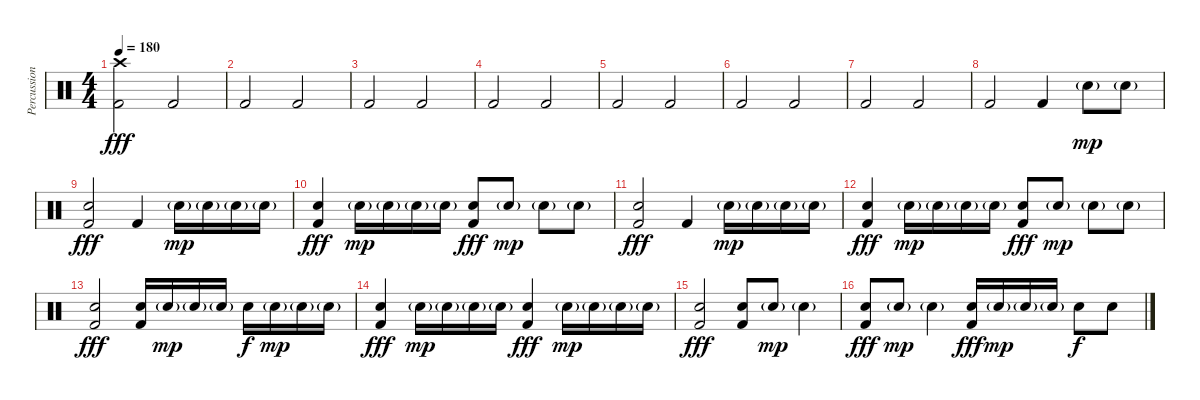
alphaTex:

\track ("Percussion" "Percussion") {instrument percussion}
\staff {score}
\articulation defaults
\ts (4 4)
\tempo 180
\clef neutral
\ks c
("Crash high (hit)" "Kick (hit) 2").2{dy fff} "Kick (hit) 2".2 |
"Kick (hit) 2".2 "Kick (hit) 2".2 |
"Kick (hit) 2".2 "Kick (hit) 2".2 |
"Kick (hit) 2".2 "Kick (hit) 2".2 |
"Kick (hit) 2".2 "Kick (hit) 2".2 |
"Kick (hit) 2".2 "Kick (hit) 2".2 |
"Kick (hit) 2".2 "Kick (hit) 2".2 |
"Kick (hit) 2".2 "Kick (hit) 2".4 "Electric Snare (hit)"{g}.8{dy mp} "Electric Snare (hit)"{g}.8 |
("Kick (hit) 2" "Electric Snare (hit)").2{dy fff} "Kick (hit) 2".4 "Electric Snare (hit)"{g}.16{dy mp} "Electric Snare (hit)"{g}.16 "Electric Snare (hit)"{g}.16 "Electric Snare (hit)"{g}.16 |
("Kick (hit) 2" "Electric Snare (hit)").4{dy fff} "Electric Snare (hit)"{g}.16{dy mp} "Electric Snare (hit)"{g}.16 "Electric Snare (hit)"{g}.16 "Electric Snare (hit)"{g}.16 ("Kick (hit) 2" "Electric Snare (hit)").8{dy fff} "Electric Snare (hit)"{g}.8{dy mp} "Electric Snare (hit)"{g}.8 "Electric Snare (hit)"{g}.8 |
("Kick (hit) 2" "Electric Snare (hit)").2{dy fff} "Kick (hit) 2".4 "Electric Snare (hit)"{g}.16{dy mp} "Electric Snare (hit)"{g}.16 "Electric Snare (hit)"{g}.16 "Electric Snare (hit)"{g}.16 |
("Kick (hit) 2" "Electric Snare (hit)").4{dy fff} "Electric Snare (hit)"{g}.16{dy mp} "Electric Snare (hit)"{g}.16 "Electric Snare (hit)"{g}.16 "Electric Snare (hit)"{g}.16 ("Kick (hit) 2" "Electric Snare (hit)").8{dy fff} "Electric Snare (hit)"{g}.8{dy mp} "Electric Snare (hit)"{g}.8 "Electric Snare (hit)"{g}.8 |
("Kick (hit) 2" "Electric Snare (hit)").2{dy fff} ("Kick (hit) 2" "Electric Snare (hit)").16 "Electric Snare (hit)"{g}.16{dy mp} "Electric Snare (hit)"{g}.16 "Electric Snare (hit)"{g}.16 "Electric Snare (hit)".16{dy f} "Electric Snare (hit)"{g}.16{dy mp} "Electric Snare (hit)"{g}.16 "Electric Snare (hit)"{g}.16 |
("Kick (hit) 2" "Electric Snare (hit)").4{dy fff} "Electric Snare (hit)"{g}.16{dy mp} "Electric Snare (hit)"{g}.16 "Electric Snare (hit)"{g}.16 "Electric Snare (hit)"{g}.16 ("Kick (hit) 2" "Electric Snare (hit)").4{dy fff} "Electric Snare (hit)"{g}.16{dy mp} "Electric Snare (hit)"{g}.16 "Electric Snare (hit)"{g}.16 "Electric Snare (hit)"{g}.16 |
("Kick (hit) 2" "Electric Snare (hit)").2{dy fff} ("Kick (hit) 2" "Electric Snare (hit)").8 "Electric Snare (hit)"{g}.8{dy mp} "Electric Snare (hit)"{g}.4 |
("Kick (hit) 2" "Electric Snare (hit)").8{dy fff} "Electric Snare (hit)"{g}.8{dy mp} "Electric Snare (hit)"{g}.4 ("Kick (hit) 2" "Electric Snare (hit)").16{dy fff} "Electric Snare (hit)"{g}.16{dy mp} "Electric Snare (hit)"{g}.16 "Electric Snare (hit)"{g}.16 "Electric Snare (hit)".8{dy f} "Electric Snare (hit)".8
